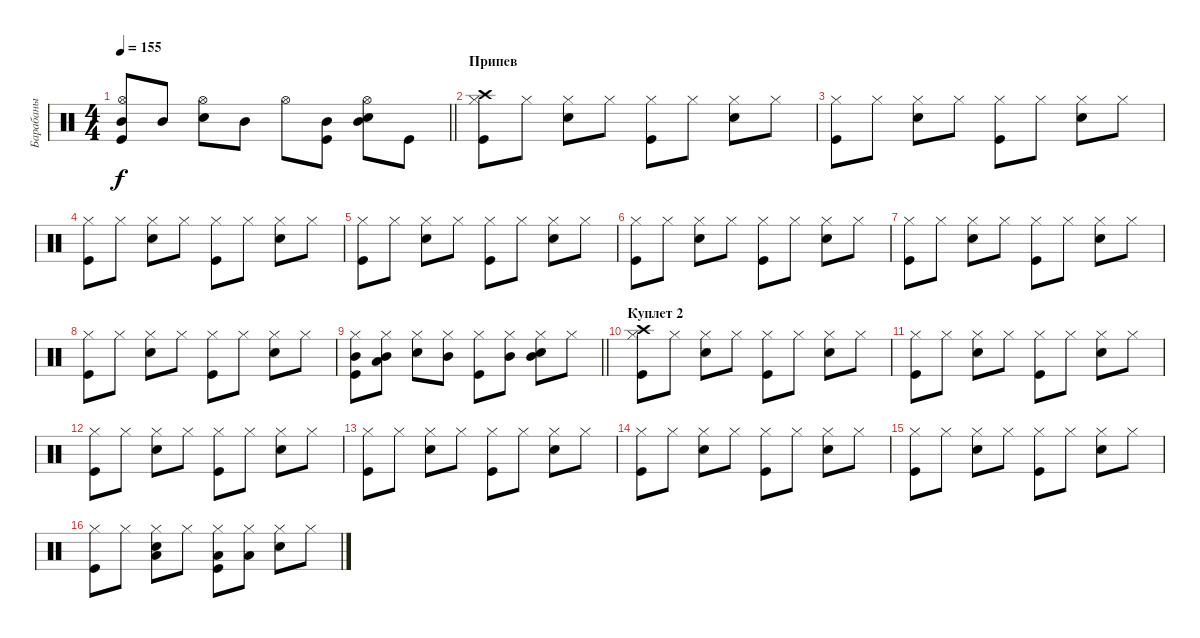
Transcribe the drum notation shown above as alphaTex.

\track ("Барабаны" "Барабаны") {instrument percussion}
\staff {score}
\articulation defaults
\ts (4 4)
\tempo 155
\clef neutral
\barLineRight lightlight
\ks c
("Kick (hit)" "Hi-Hat (open)" "Mid Tom (hit)").8{dy f} "Mid Tom (hit)".8 ("Snare (hit) 2" "Hi-Hat (open)").8 "Mid Tom (hit)".8 "Hi-Hat (open)".8 ("Kick (hit)" "Mid Tom (hit)").8 ("Snare (hit) 2" "Hi-Hat (open)" "Mid Tom (hit)").8 "Kick (hit)".8 |
\section ("" "Припев")
("Kick (hit)" "Hi-Hat (closed)" "Crash high (hit)").8 "Hi-Hat (closed)".8 ("Snare (hit) 2" "Hi-Hat (closed)").8 "Hi-Hat (closed)".8 ("Kick (hit)" "Hi-Hat (closed)").8 "Hi-Hat (closed)".8 ("Snare (hit) 2" "Hi-Hat (closed)").8 "Hi-Hat (closed)".8 |
("Kick (hit)" "Hi-Hat (closed)").8 "Hi-Hat (closed)".8 ("Snare (hit) 2" "Hi-Hat (closed)").8 "Hi-Hat (closed)".8 ("Kick (hit)" "Hi-Hat (closed)").8 "Hi-Hat (closed)".8 ("Snare (hit) 2" "Hi-Hat (closed)").8 "Hi-Hat (closed)".8 |
("Kick (hit)" "Hi-Hat (closed)").8 "Hi-Hat (closed)".8 ("Snare (hit) 2" "Hi-Hat (closed)").8 "Hi-Hat (closed)".8 ("Kick (hit)" "Hi-Hat (closed)").8 "Hi-Hat (closed)".8 ("Snare (hit) 2" "Hi-Hat (closed)").8 "Hi-Hat (closed)".8 |
("Kick (hit)" "Hi-Hat (closed)").8 "Hi-Hat (closed)".8 ("Snare (hit) 2" "Hi-Hat (closed)").8 "Hi-Hat (closed)".8 ("Kick (hit)" "Hi-Hat (closed)").8 "Hi-Hat (closed)".8 ("Snare (hit) 2" "Hi-Hat (closed)").8 "Hi-Hat (closed)".8 |
("Kick (hit)" "Hi-Hat (closed)").8 "Hi-Hat (closed)".8 ("Snare (hit) 2" "Hi-Hat (closed)").8 "Hi-Hat (closed)".8 ("Kick (hit)" "Hi-Hat (closed)").8 "Hi-Hat (closed)".8 ("Snare (hit) 2" "Hi-Hat (closed)").8 "Hi-Hat (closed)".8 |
("Kick (hit)" "Hi-Hat (closed)").8 "Hi-Hat (closed)".8 ("Snare (hit) 2" "Hi-Hat (closed)").8 "Hi-Hat (closed)".8 ("Kick (hit)" "Hi-Hat (closed)").8 "Hi-Hat (closed)".8 ("Snare (hit) 2" "Hi-Hat (closed)").8 "Hi-Hat (closed)".8 |
("Kick (hit)" "Hi-Hat (closed)").8 "Hi-Hat (closed)".8 ("Snare (hit) 2" "Hi-Hat (closed)").8 "Hi-Hat (closed)".8 ("Kick (hit)" "Hi-Hat (closed)").8 "Hi-Hat (closed)".8 ("Snare (hit) 2" "Hi-Hat (closed)").8 "Hi-Hat (closed)".8 |
\barLineRight lightlight
("Kick (hit)" "Hi-Hat (closed)" "Mid Tom (hit)").8 ("Hi-Hat (closed)" "Low Tom (hit)" "Mid Tom (hit)").8 ("Snare (hit) 2" "Hi-Hat (closed)").8 ("Hi-Hat (closed)" "Mid Tom (hit)").8 ("Kick (hit)" "Hi-Hat (closed)").8 ("Hi-Hat (closed)" "Mid Tom (hit)").8 ("Snare (hit) 2" "Hi-Hat (closed)" "Mid Tom (hit)").8 "Hi-Hat (closed)".8 |
\section ("" "Куплет 2")
("Kick (hit)" "Hi-Hat (closed)" "Crash high (hit)").8 "Hi-Hat (closed)".8 ("Snare (hit) 2" "Hi-Hat (closed)").8 "Hi-Hat (closed)".8 ("Kick (hit)" "Hi-Hat (closed)").8 "Hi-Hat (closed)".8 ("Snare (hit) 2" "Hi-Hat (closed)").8 "Hi-Hat (closed)".8 |
("Kick (hit)" "Hi-Hat (closed)").8 "Hi-Hat (closed)".8 ("Snare (hit) 2" "Hi-Hat (closed)").8 "Hi-Hat (closed)".8 ("Kick (hit)" "Hi-Hat (closed)").8 "Hi-Hat (closed)".8 ("Snare (hit) 2" "Hi-Hat (closed)").8 "Hi-Hat (closed)".8 |
("Kick (hit)" "Hi-Hat (closed)").8 "Hi-Hat (closed)".8 ("Snare (hit) 2" "Hi-Hat (closed)").8 "Hi-Hat (closed)".8 ("Kick (hit)" "Hi-Hat (closed)").8 "Hi-Hat (closed)".8 ("Snare (hit) 2" "Hi-Hat (closed)").8 "Hi-Hat (closed)".8 |
("Kick (hit)" "Hi-Hat (closed)").8 "Hi-Hat (closed)".8 ("Snare (hit) 2" "Hi-Hat (closed)").8 "Hi-Hat (closed)".8 ("Kick (hit)" "Hi-Hat (closed)").8 "Hi-Hat (closed)".8 ("Snare (hit) 2" "Hi-Hat (closed)").8 "Hi-Hat (closed)".8 |
("Kick (hit)" "Hi-Hat (closed)").8 "Hi-Hat (closed)".8 ("Snare (hit) 2" "Hi-Hat (closed)").8 "Hi-Hat (closed)".8 ("Kick (hit)" "Hi-Hat (closed)").8 "Hi-Hat (closed)".8 ("Snare (hit) 2" "Hi-Hat (closed)").8 "Hi-Hat (closed)".8 |
("Kick (hit)" "Hi-Hat (closed)").8 "Hi-Hat (closed)".8 ("Snare (hit) 2" "Hi-Hat (closed)").8 "Hi-Hat (closed)".8 ("Kick (hit)" "Hi-Hat (closed)").8 "Hi-Hat (closed)".8 ("Snare (hit) 2" "Hi-Hat (closed)").8 "Hi-Hat (closed)".8 |
("Kick (hit)" "Hi-Hat (closed)").8 "Hi-Hat (closed)".8 ("Snare (hit) 2" "Hi-Hat (closed)" "Low Tom (hit)").8 "Hi-Hat (closed)".8 ("Kick (hit)" "Hi-Hat (closed)" "Low Tom (hit)").8 ("Hi-Hat (closed)" "Low Tom (hit)").8 ("Snare (hit) 2" "Hi-Hat (closed)").8 "Hi-Hat (closed)".8
